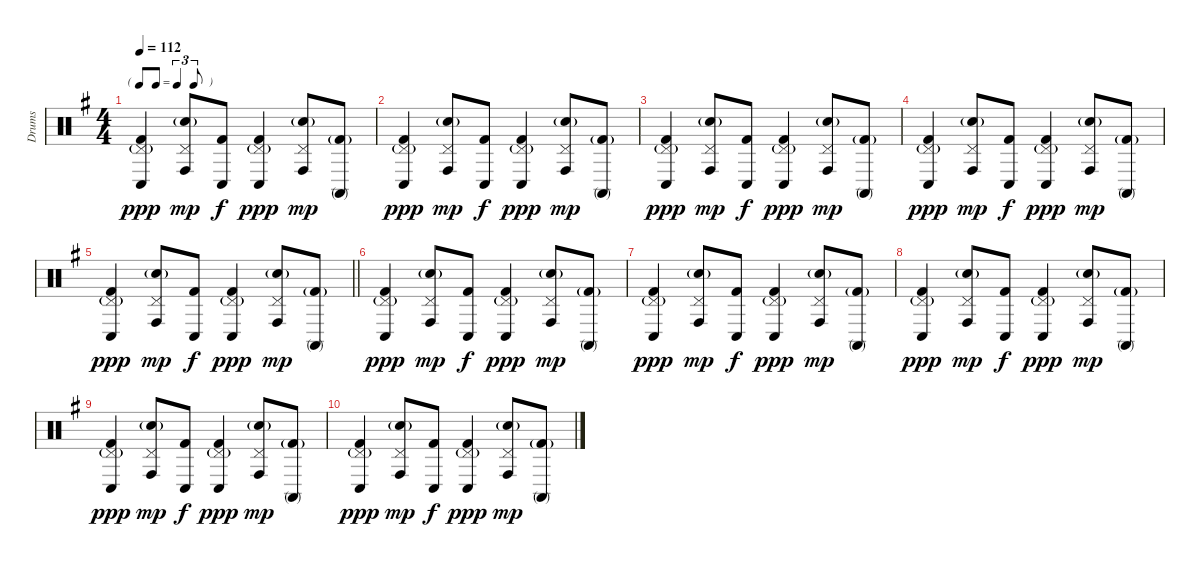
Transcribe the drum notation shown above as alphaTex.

\track ("Drums" "Drums") {instrument percussion}
\staff {score}
\articulation defaults
\ts (4 4)
\tf triplet8th
\tempo 112
\clef neutral
\ks g
("Pedal Hi-Hat (hit)"{g} "Conga low (hit)" "Kick (hit) 2").4{dy ppp} ("Pedal Hi-Hat (hit)" "Hand Clap (hit)"{g} "Conga high (hit)").8{dy mp} ("Conga low (hit)" "Kick (hit) 2").8{dy f} ("Pedal Hi-Hat (hit)"{g} "Conga low (hit)" "Kick (hit) 2").4{dy ppp} ("Pedal Hi-Hat (hit)" "Hand Clap (hit)"{g} "Conga high (hit)").8{dy mp} ("Conga high (mute)" "Kick (hit) 2"{g}).8 |
("Pedal Hi-Hat (hit)"{g} "Conga low (hit)" "Kick (hit) 2").4{dy ppp} ("Pedal Hi-Hat (hit)" "Hand Clap (hit)"{g} "Conga high (hit)").8{dy mp} ("Conga low (hit)" "Kick (hit) 2").8{dy f} ("Pedal Hi-Hat (hit)"{g} "Conga low (hit)" "Kick (hit) 2").4{dy ppp} ("Pedal Hi-Hat (hit)" "Hand Clap (hit)"{g} "Conga high (hit)").8{dy mp} ("Conga high (mute)" "Kick (hit) 2"{g}).8 |
("Pedal Hi-Hat (hit)"{g} "Conga low (hit)" "Kick (hit) 2").4{dy ppp} ("Pedal Hi-Hat (hit)" "Hand Clap (hit)"{g} "Conga high (hit)").8{dy mp} ("Conga low (hit)" "Kick (hit) 2").8{dy f} ("Pedal Hi-Hat (hit)"{g} "Conga low (hit)" "Kick (hit) 2").4{dy ppp} ("Pedal Hi-Hat (hit)" "Hand Clap (hit)"{g} "Conga high (hit)").8{dy mp} ("Conga high (mute)" "Kick (hit) 2"{g}).8 |
("Pedal Hi-Hat (hit)"{g} "Conga low (hit)" "Kick (hit) 2").4{dy ppp} ("Pedal Hi-Hat (hit)" "Hand Clap (hit)"{g} "Conga high (hit)").8{dy mp} ("Conga low (hit)" "Kick (hit) 2").8{dy f} ("Pedal Hi-Hat (hit)"{g} "Conga low (hit)" "Kick (hit) 2").4{dy ppp} ("Pedal Hi-Hat (hit)" "Hand Clap (hit)"{g} "Conga high (hit)").8{dy mp} ("Conga high (mute)" "Kick (hit) 2"{g}).8 |
\barLineRight lightlight
("Pedal Hi-Hat (hit)"{g} "Conga low (hit)" "Kick (hit) 2").4{dy ppp} ("Pedal Hi-Hat (hit)" "Hand Clap (hit)"{g} "Conga high (hit)").8{dy mp} ("Conga low (hit)" "Kick (hit) 2").8{dy f} ("Pedal Hi-Hat (hit)"{g} "Conga low (hit)" "Kick (hit) 2").4{dy ppp} ("Pedal Hi-Hat (hit)" "Hand Clap (hit)"{g} "Conga high (hit)").8{dy mp} ("Conga high (mute)" "Kick (hit) 2"{g}).8 |
("Pedal Hi-Hat (hit)"{g} "Conga low (hit)" "Kick (hit) 2").4{dy ppp} ("Pedal Hi-Hat (hit)" "Hand Clap (hit)"{g} "Conga high (hit)").8{dy mp} ("Conga low (hit)" "Kick (hit) 2").8{dy f} ("Pedal Hi-Hat (hit)"{g} "Conga low (hit)" "Kick (hit) 2").4{dy ppp} ("Pedal Hi-Hat (hit)" "Hand Clap (hit)"{g} "Conga high (hit)").8{dy mp} ("Conga high (mute)" "Kick (hit) 2"{g}).8 |
("Pedal Hi-Hat (hit)"{g} "Conga low (hit)" "Kick (hit) 2").4{dy ppp} ("Pedal Hi-Hat (hit)" "Hand Clap (hit)"{g} "Conga high (hit)").8{dy mp} ("Conga low (hit)" "Kick (hit) 2").8{dy f} ("Pedal Hi-Hat (hit)"{g} "Conga low (hit)" "Kick (hit) 2").4{dy ppp} ("Pedal Hi-Hat (hit)" "Hand Clap (hit)"{g} "Conga high (hit)").8{dy mp} ("Conga high (mute)" "Kick (hit) 2"{g}).8 |
("Pedal Hi-Hat (hit)"{g} "Conga low (hit)" "Kick (hit) 2").4{dy ppp} ("Pedal Hi-Hat (hit)" "Hand Clap (hit)"{g} "Conga high (hit)").8{dy mp} ("Conga low (hit)" "Kick (hit) 2").8{dy f} ("Pedal Hi-Hat (hit)"{g} "Conga low (hit)" "Kick (hit) 2").4{dy ppp} ("Pedal Hi-Hat (hit)" "Hand Clap (hit)"{g} "Conga high (hit)").8{dy mp} ("Conga high (mute)" "Kick (hit) 2"{g}).8 |
("Pedal Hi-Hat (hit)"{g} "Conga low (hit)" "Kick (hit) 2").4{dy ppp} ("Pedal Hi-Hat (hit)" "Hand Clap (hit)"{g} "Conga high (hit)").8{dy mp} ("Conga low (hit)" "Kick (hit) 2").8{dy f} ("Pedal Hi-Hat (hit)"{g} "Conga low (hit)" "Kick (hit) 2").4{dy ppp} ("Pedal Hi-Hat (hit)" "Hand Clap (hit)"{g} "Conga high (hit)").8{dy mp} ("Conga high (mute)" "Kick (hit) 2"{g}).8 |
("Pedal Hi-Hat (hit)"{g} "Conga low (hit)" "Kick (hit) 2").4{dy ppp} ("Pedal Hi-Hat (hit)" "Hand Clap (hit)"{g} "Conga high (hit)").8{dy mp} ("Conga low (hit)" "Kick (hit) 2").8{dy f} ("Pedal Hi-Hat (hit)"{g} "Conga low (hit)" "Kick (hit) 2").4{dy ppp} ("Pedal Hi-Hat (hit)" "Hand Clap (hit)"{g} "Conga high (hit)").8{dy mp} ("Conga high (mute)" "Kick (hit) 2"{g}).8
